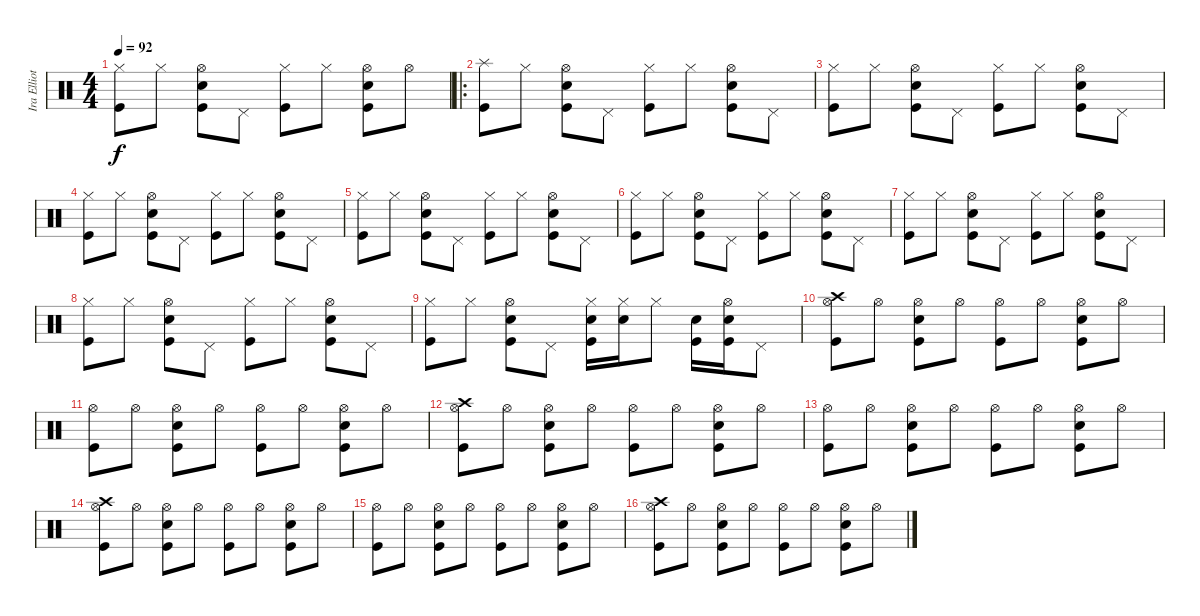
\track ("Ira Elliot" "Ira Elliot") {instrument percussion}
\staff {score}
\articulation defaults
\ts (4 4)
\tempo 92
\clef neutral
\ks c
("Hi-Hat (closed)" "Kick (hit)").8{dy f} "Hi-Hat (closed)".8 ("Snare (hit) 2" "Hi-Hat (open)" "Kick (hit)").8 "Pedal Hi-Hat (hit)".8 ("Hi-Hat (closed)" "Kick (hit)").8 "Hi-Hat (closed)".8 ("Snare (hit) 2" "Hi-Hat (open)" "Kick (hit)").8 "Hi-Hat (open)".8 |
\ro
("Splash (hit)" "Kick (hit)").8 "Hi-Hat (closed)".8 ("Snare (hit) 2" "Hi-Hat (open)" "Kick (hit)").8 "Pedal Hi-Hat (hit)".8 ("Hi-Hat (closed)" "Kick (hit)").8 "Hi-Hat (closed)".8 ("Snare (hit) 2" "Hi-Hat (open)" "Kick (hit)").8 "Pedal Hi-Hat (hit)".8 |
("Hi-Hat (closed)" "Kick (hit)").8 "Hi-Hat (closed)".8 ("Snare (hit) 2" "Hi-Hat (open)" "Kick (hit)").8 "Pedal Hi-Hat (hit)".8 ("Hi-Hat (closed)" "Kick (hit)").8 "Hi-Hat (closed)".8 ("Snare (hit) 2" "Hi-Hat (open)" "Kick (hit)").8 "Pedal Hi-Hat (hit)".8 |
("Hi-Hat (closed)" "Kick (hit)").8 "Hi-Hat (closed)".8 ("Snare (hit) 2" "Hi-Hat (open)" "Kick (hit)").8 "Pedal Hi-Hat (hit)".8 ("Hi-Hat (closed)" "Kick (hit)").8 "Hi-Hat (closed)".8 ("Snare (hit) 2" "Hi-Hat (open)" "Kick (hit)").8 "Pedal Hi-Hat (hit)".8 |
("Hi-Hat (closed)" "Kick (hit)").8 "Hi-Hat (closed)".8 ("Snare (hit) 2" "Hi-Hat (open)" "Kick (hit)").8 "Pedal Hi-Hat (hit)".8 ("Hi-Hat (closed)" "Kick (hit)").8 "Hi-Hat (closed)".8 ("Snare (hit) 2" "Hi-Hat (open)" "Kick (hit)").8 "Pedal Hi-Hat (hit)".8 |
("Hi-Hat (closed)" "Kick (hit)").8 "Hi-Hat (closed)".8 ("Snare (hit) 2" "Hi-Hat (open)" "Kick (hit)").8 "Pedal Hi-Hat (hit)".8 ("Hi-Hat (closed)" "Kick (hit)").8 "Hi-Hat (closed)".8 ("Snare (hit) 2" "Hi-Hat (open)" "Kick (hit)").8 "Pedal Hi-Hat (hit)".8 |
("Hi-Hat (closed)" "Kick (hit)").8 "Hi-Hat (closed)".8 ("Snare (hit) 2" "Hi-Hat (open)" "Kick (hit)").8 "Pedal Hi-Hat (hit)".8 ("Hi-Hat (closed)" "Kick (hit)").8 "Hi-Hat (closed)".8 ("Snare (hit) 2" "Hi-Hat (open)" "Kick (hit)").8 "Pedal Hi-Hat (hit)".8 |
("Hi-Hat (closed)" "Kick (hit)").8 "Hi-Hat (closed)".8 ("Snare (hit) 2" "Hi-Hat (open)" "Kick (hit)").8 "Pedal Hi-Hat (hit)".8 ("Hi-Hat (closed)" "Kick (hit)").8 "Hi-Hat (closed)".8 ("Snare (hit) 2" "Hi-Hat (open)" "Kick (hit)").8 "Pedal Hi-Hat (hit)".8 |
("Hi-Hat (closed)" "Kick (hit)").8 "Hi-Hat (closed)".8 ("Snare (hit) 2" "Hi-Hat (open)" "Kick (hit)").8 "Pedal Hi-Hat (hit)".8 ("Snare (hit) 2" "Hi-Hat (closed)" "Kick (hit)").16 ("Snare (hit) 2" "Hi-Hat (closed)").16 "Hi-Hat (closed)".8 ("Snare (hit) 2" "Kick (hit)").16 ("Snare (hit) 2" "Hi-Hat (open)" "Kick (hit)").16 "Pedal Hi-Hat (hit)".8 |
("Crash high (hit)" "Hi-Hat (open)" "Kick (hit)").8 "Hi-Hat (open)".8 ("Snare (hit) 2" "Hi-Hat (open)" "Kick (hit)").8 "Hi-Hat (open)".8 ("Hi-Hat (open)" "Kick (hit)").8 "Hi-Hat (open)".8 ("Snare (hit) 2" "Hi-Hat (open)" "Kick (hit)").8 "Hi-Hat (open)".8 |
("Hi-Hat (open)" "Kick (hit)").8 "Hi-Hat (open)".8 ("Snare (hit) 2" "Hi-Hat (open)" "Kick (hit)").8 "Hi-Hat (open)".8 ("Hi-Hat (open)" "Kick (hit)").8 "Hi-Hat (open)".8 ("Snare (hit) 2" "Hi-Hat (open)" "Kick (hit)").8 "Hi-Hat (open)".8 |
("Crash high (hit)" "Hi-Hat (open)" "Kick (hit)").8 "Hi-Hat (open)".8 ("Snare (hit) 2" "Hi-Hat (open)" "Kick (hit)").8 "Hi-Hat (open)".8 ("Hi-Hat (open)" "Kick (hit)").8 "Hi-Hat (open)".8 ("Snare (hit) 2" "Hi-Hat (open)" "Kick (hit)").8 "Hi-Hat (open)".8 |
("Hi-Hat (open)" "Kick (hit)").8 "Hi-Hat (open)".8 ("Snare (hit) 2" "Hi-Hat (open)" "Kick (hit)").8 "Hi-Hat (open)".8 ("Hi-Hat (open)" "Kick (hit)").8 "Hi-Hat (open)".8 ("Snare (hit) 2" "Hi-Hat (open)" "Kick (hit)").8 "Hi-Hat (open)".8 |
("Crash high (hit)" "Hi-Hat (open)" "Kick (hit)").8 "Hi-Hat (open)".8 ("Snare (hit) 2" "Hi-Hat (open)" "Kick (hit)").8 "Hi-Hat (open)".8 ("Hi-Hat (open)" "Kick (hit)").8 "Hi-Hat (open)".8 ("Snare (hit) 2" "Hi-Hat (open)" "Kick (hit)").8 "Hi-Hat (open)".8 |
("Hi-Hat (open)" "Kick (hit)").8 "Hi-Hat (open)".8 ("Snare (hit) 2" "Hi-Hat (open)" "Kick (hit)").8 "Hi-Hat (open)".8 ("Hi-Hat (open)" "Kick (hit)").8 "Hi-Hat (open)".8 ("Snare (hit) 2" "Hi-Hat (open)" "Kick (hit)").8 "Hi-Hat (open)".8 |
("Crash high (hit)" "Hi-Hat (open)" "Kick (hit)").8 "Hi-Hat (open)".8 ("Snare (hit) 2" "Hi-Hat (open)" "Kick (hit)").8 "Hi-Hat (open)".8 ("Hi-Hat (open)" "Kick (hit)").8 "Hi-Hat (open)".8 ("Snare (hit) 2" "Hi-Hat (open)" "Kick (hit)").8 "Hi-Hat (open)".8
